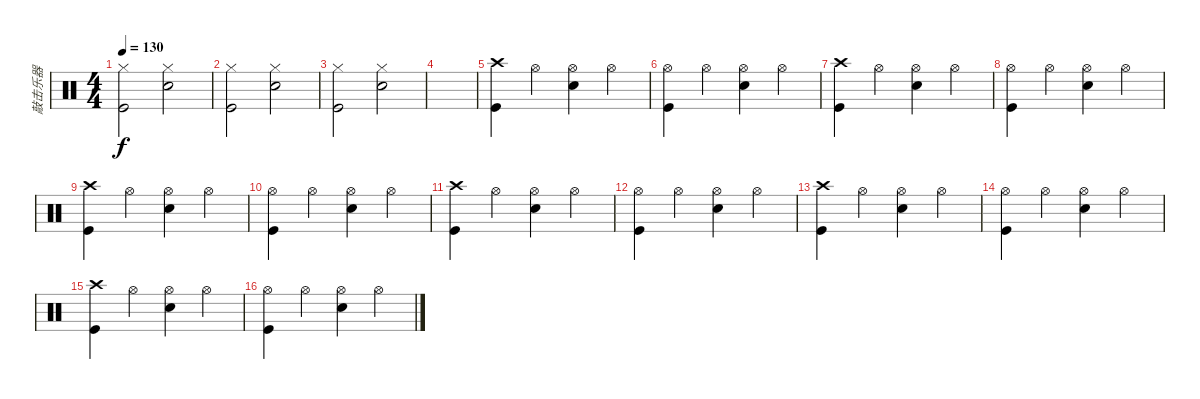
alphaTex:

\track ("敲击乐器" "敲击乐器") {instrument percussion}
\staff {score}
\articulation defaults
\ts (4 4)
\tempo 130
\clef neutral
\ks c
("Hi-Hat (closed)" "Kick (hit)").2{dy f} ("Hi-Hat (closed)" "Electric Snare (hit)").2 |
("Hi-Hat (closed)" "Kick (hit)").2 ("Hi-Hat (closed)" "Electric Snare (hit)").2 |
("Hi-Hat (closed)" "Kick (hit)").2 ("Hi-Hat (closed)" "Electric Snare (hit)").2 |
|
("Crash high (hit)" "Kick (hit)").4 "Hi-Hat (open)".4 ("Hi-Hat (open)" "Electric Snare (hit)").4 "Hi-Hat (open)".4 |
("Hi-Hat (open)" "Kick (hit)").4 "Hi-Hat (open)".4 ("Hi-Hat (open)" "Electric Snare (hit)").4 "Hi-Hat (open)".4 |
("Crash high (hit)" "Kick (hit)").4 "Hi-Hat (open)".4 ("Hi-Hat (open)" "Electric Snare (hit)").4 "Hi-Hat (open)".4 |
("Hi-Hat (open)" "Kick (hit)").4 "Hi-Hat (open)".4 ("Hi-Hat (open)" "Electric Snare (hit)").4 "Hi-Hat (open)".4 |
("Crash high (hit)" "Kick (hit)").4 "Hi-Hat (open)".4 ("Hi-Hat (open)" "Electric Snare (hit)").4 "Hi-Hat (open)".4 |
("Hi-Hat (open)" "Kick (hit)").4 "Hi-Hat (open)".4 ("Hi-Hat (open)" "Electric Snare (hit)").4 "Hi-Hat (open)".4 |
("Crash high (hit)" "Kick (hit)").4 "Hi-Hat (open)".4 ("Hi-Hat (open)" "Electric Snare (hit)").4 "Hi-Hat (open)".4 |
("Hi-Hat (open)" "Kick (hit)").4 "Hi-Hat (open)".4 ("Hi-Hat (open)" "Electric Snare (hit)").4 "Hi-Hat (open)".4 |
("Crash high (hit)" "Kick (hit)").4 "Hi-Hat (open)".4 ("Hi-Hat (open)" "Electric Snare (hit)").4 "Hi-Hat (open)".4 |
("Hi-Hat (open)" "Kick (hit)").4 "Hi-Hat (open)".4 ("Hi-Hat (open)" "Electric Snare (hit)").4 "Hi-Hat (open)".4 |
("Crash high (hit)" "Kick (hit)").4 "Hi-Hat (open)".4 ("Hi-Hat (open)" "Electric Snare (hit)").4 "Hi-Hat (open)".4 |
("Hi-Hat (open)" "Kick (hit)").4 "Hi-Hat (open)".4 ("Hi-Hat (open)" "Electric Snare (hit)").4 "Hi-Hat (open)".4
